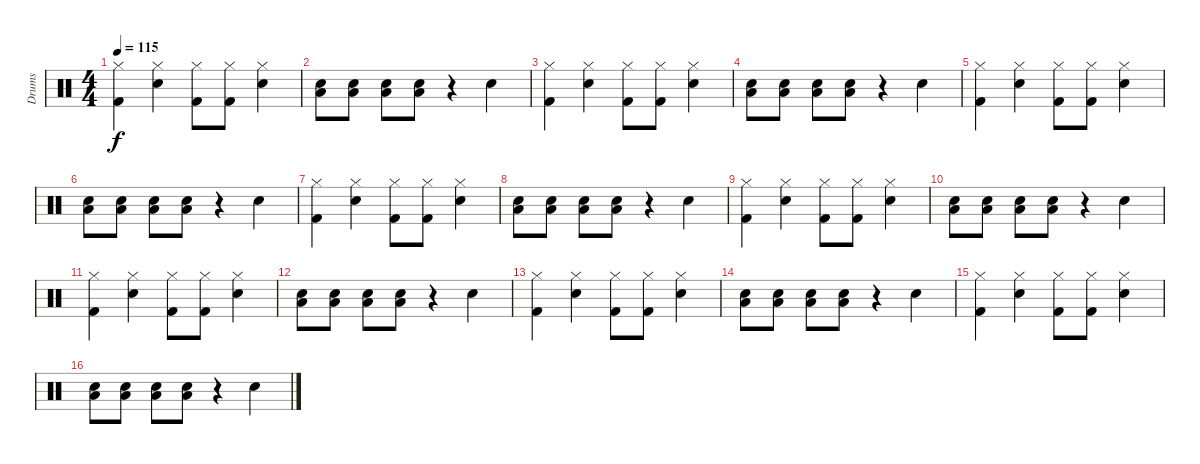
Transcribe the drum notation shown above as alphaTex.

\track ("Drums" "Drums") {instrument percussion}
\staff {score}
\articulation defaults
\ts (4 4)
\tempo 115
\clef neutral
\ks c
("Hi-Hat (closed)" "Kick (hit) 2").4{dy f} ("Hi-Hat (closed)" "Electric Snare (hit)").4 ("Hi-Hat (closed)" "Kick (hit) 2").8 ("Hi-Hat (closed)" "Kick (hit) 2").8 ("Hi-Hat (closed)" "Electric Snare (hit)").4 |
("Electric Snare (hit)" "Low Floor Tom (hit)").8 ("Electric Snare (hit)" "Low Floor Tom (hit)").8 ("Electric Snare (hit)" "Low Floor Tom (hit)").8 ("Electric Snare (hit)" "Low Floor Tom (hit)").8 r.4 "Electric Snare (hit)".4 |
("Hi-Hat (closed)" "Kick (hit) 2").4 ("Hi-Hat (closed)" "Electric Snare (hit)").4 ("Hi-Hat (closed)" "Kick (hit) 2").8 ("Hi-Hat (closed)" "Kick (hit) 2").8 ("Hi-Hat (closed)" "Electric Snare (hit)").4 |
("Electric Snare (hit)" "Low Floor Tom (hit)").8 ("Electric Snare (hit)" "Low Floor Tom (hit)").8 ("Electric Snare (hit)" "Low Floor Tom (hit)").8 ("Electric Snare (hit)" "Low Floor Tom (hit)").8 r.4 "Electric Snare (hit)".4 |
("Hi-Hat (closed)" "Kick (hit) 2").4 ("Hi-Hat (closed)" "Electric Snare (hit)").4 ("Hi-Hat (closed)" "Kick (hit) 2").8 ("Hi-Hat (closed)" "Kick (hit) 2").8 ("Hi-Hat (closed)" "Electric Snare (hit)").4 |
("Electric Snare (hit)" "Low Floor Tom (hit)").8 ("Electric Snare (hit)" "Low Floor Tom (hit)").8 ("Electric Snare (hit)" "Low Floor Tom (hit)").8 ("Electric Snare (hit)" "Low Floor Tom (hit)").8 r.4 "Electric Snare (hit)".4 |
("Hi-Hat (closed)" "Kick (hit) 2").4 ("Hi-Hat (closed)" "Electric Snare (hit)").4 ("Hi-Hat (closed)" "Kick (hit) 2").8 ("Hi-Hat (closed)" "Kick (hit) 2").8 ("Hi-Hat (closed)" "Electric Snare (hit)").4 |
("Electric Snare (hit)" "Low Floor Tom (hit)").8 ("Electric Snare (hit)" "Low Floor Tom (hit)").8 ("Electric Snare (hit)" "Low Floor Tom (hit)").8 ("Electric Snare (hit)" "Low Floor Tom (hit)").8 r.4 "Electric Snare (hit)".4 |
("Hi-Hat (closed)" "Kick (hit) 2").4 ("Hi-Hat (closed)" "Electric Snare (hit)").4 ("Hi-Hat (closed)" "Kick (hit) 2").8 ("Hi-Hat (closed)" "Kick (hit) 2").8 ("Hi-Hat (closed)" "Electric Snare (hit)").4 |
("Electric Snare (hit)" "Low Floor Tom (hit)").8 ("Electric Snare (hit)" "Low Floor Tom (hit)").8 ("Electric Snare (hit)" "Low Floor Tom (hit)").8 ("Electric Snare (hit)" "Low Floor Tom (hit)").8 r.4 "Electric Snare (hit)".4 |
("Hi-Hat (closed)" "Kick (hit) 2").4 ("Hi-Hat (closed)" "Electric Snare (hit)").4 ("Hi-Hat (closed)" "Kick (hit) 2").8 ("Hi-Hat (closed)" "Kick (hit) 2").8 ("Hi-Hat (closed)" "Electric Snare (hit)").4 |
("Electric Snare (hit)" "Low Floor Tom (hit)").8 ("Electric Snare (hit)" "Low Floor Tom (hit)").8 ("Electric Snare (hit)" "Low Floor Tom (hit)").8 ("Electric Snare (hit)" "Low Floor Tom (hit)").8 r.4 "Electric Snare (hit)".4 |
("Hi-Hat (closed)" "Kick (hit) 2").4 ("Hi-Hat (closed)" "Electric Snare (hit)").4 ("Hi-Hat (closed)" "Kick (hit) 2").8 ("Hi-Hat (closed)" "Kick (hit) 2").8 ("Hi-Hat (closed)" "Electric Snare (hit)").4 |
("Electric Snare (hit)" "Low Floor Tom (hit)").8 ("Electric Snare (hit)" "Low Floor Tom (hit)").8 ("Electric Snare (hit)" "Low Floor Tom (hit)").8 ("Electric Snare (hit)" "Low Floor Tom (hit)").8 r.4 "Electric Snare (hit)".4 |
("Hi-Hat (closed)" "Kick (hit) 2").4 ("Hi-Hat (closed)" "Electric Snare (hit)").4 ("Hi-Hat (closed)" "Kick (hit) 2").8 ("Hi-Hat (closed)" "Kick (hit) 2").8 ("Hi-Hat (closed)" "Electric Snare (hit)").4 |
("Electric Snare (hit)" "Low Floor Tom (hit)").8 ("Electric Snare (hit)" "Low Floor Tom (hit)").8 ("Electric Snare (hit)" "Low Floor Tom (hit)").8 ("Electric Snare (hit)" "Low Floor Tom (hit)").8 r.4 "Electric Snare (hit)".4
